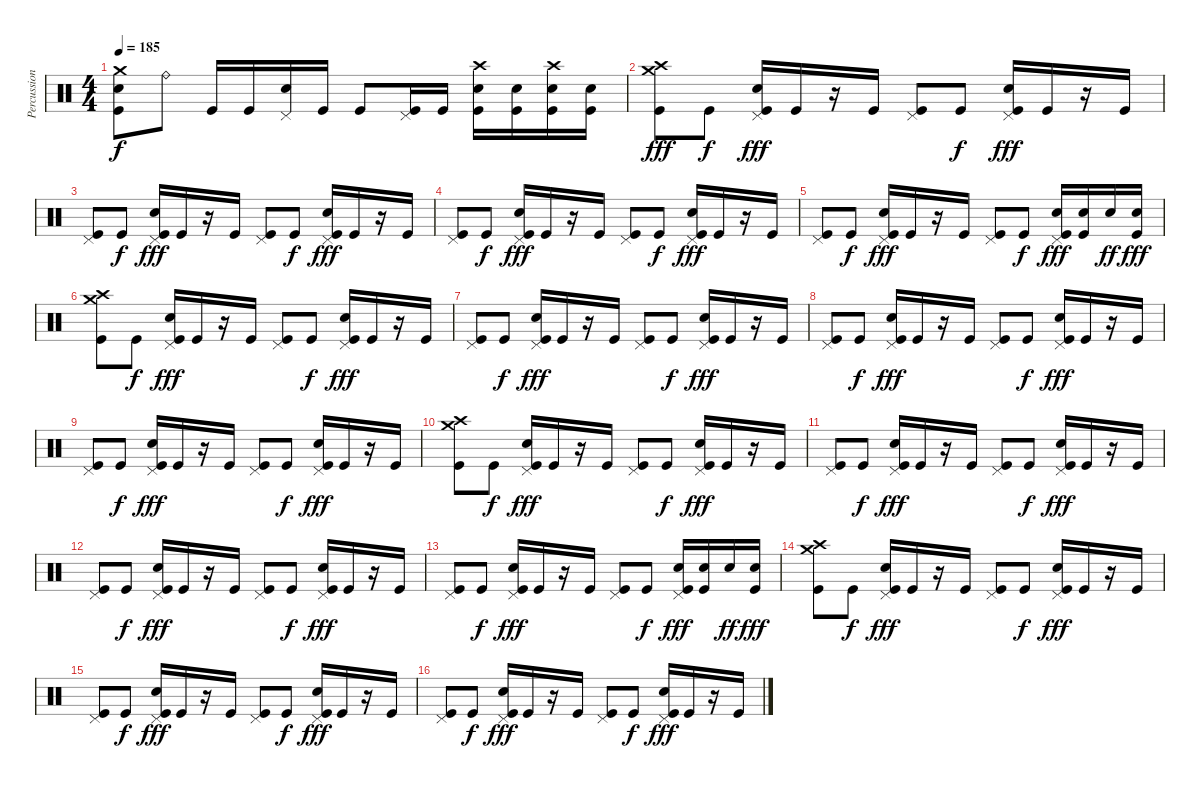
\track ("Percussions" "Percussion") {instrument percussion}
\staff {score}
\articulation defaults
\ts (4 4)
\tempo 185
\clef neutral
\ks c
("Crash medium (hit)" "Electric Snare (hit)" "Kick (hit)").8{dy f} "Ride (bell)".8 "Kick (hit)".16 "Kick (hit)".16 ("Pedal Hi-Hat (hit)" "Electric Snare (hit)").16 "Kick (hit)".16 "Kick (hit)".8 ("Pedal Hi-Hat (hit)" "Kick (hit)").16 "Kick (hit)".16 ("Crash high (hit)" "Electric Snare (hit)" "Kick (hit)").16 ("Electric Snare (hit)" "Kick (hit)").16 ("Crash high (hit)" "Electric Snare (hit)" "Kick (hit)").16 ("Electric Snare (hit)" "Kick (hit)").16 |
\section ("" "")
("Crash medium (hit)" "Crash high (hit)" "Kick (hit)").8{dy fff} "Kick (hit)".8{dy f} ("Pedal Hi-Hat (hit)" "Electric Snare (hit)" "Kick (hit)").16{dy fff} "Kick (hit)".16 r.16 "Kick (hit)".16 ("Pedal Hi-Hat (hit)" "Kick (hit)").8 "Kick (hit)".8{dy f} ("Pedal Hi-Hat (hit)" "Electric Snare (hit)" "Kick (hit)").16{dy fff} "Kick (hit)".16 r.16 "Kick (hit)".16 |
("Pedal Hi-Hat (hit)" "Kick (hit)").8 "Kick (hit)".8{dy f} ("Pedal Hi-Hat (hit)" "Electric Snare (hit)" "Kick (hit)").16{dy fff} "Kick (hit)".16 r.16 "Kick (hit)".16 ("Pedal Hi-Hat (hit)" "Kick (hit)").8 "Kick (hit)".8{dy f} ("Pedal Hi-Hat (hit)" "Electric Snare (hit)" "Kick (hit)").16{dy fff} "Kick (hit)".16 r.16 "Kick (hit)".16 |
("Pedal Hi-Hat (hit)" "Kick (hit)").8 "Kick (hit)".8{dy f} ("Pedal Hi-Hat (hit)" "Electric Snare (hit)" "Kick (hit)").16{dy fff} "Kick (hit)".16 r.16 "Kick (hit)".16 ("Pedal Hi-Hat (hit)" "Kick (hit)").8 "Kick (hit)".8{dy f} ("Pedal Hi-Hat (hit)" "Electric Snare (hit)" "Kick (hit)").16{dy fff} "Kick (hit)".16 r.16 "Kick (hit)".16 |
("Pedal Hi-Hat (hit)" "Kick (hit)").8 "Kick (hit)".8{dy f} ("Pedal Hi-Hat (hit)" "Electric Snare (hit)" "Kick (hit)").16{dy fff} "Kick (hit)".16 r.16 "Kick (hit)".16 ("Pedal Hi-Hat (hit)" "Kick (hit)").8 "Kick (hit)".8{dy f} ("Pedal Hi-Hat (hit)" "Electric Snare (hit)" "Kick (hit)").16{dy fff} ("Electric Snare (hit)" "Kick (hit)").16 "Electric Snare (hit)".16{dy ff} ("Electric Snare (hit)" "Kick (hit)").16{dy fff} |
("Crash medium (hit)" "Crash high (hit)" "Kick (hit)").8 "Kick (hit)".8{dy f} ("Pedal Hi-Hat (hit)" "Electric Snare (hit)" "Kick (hit)").16{dy fff} "Kick (hit)".16 r.16 "Kick (hit)".16 ("Pedal Hi-Hat (hit)" "Kick (hit)").8 "Kick (hit)".8{dy f} ("Pedal Hi-Hat (hit)" "Electric Snare (hit)" "Kick (hit)").16{dy fff} "Kick (hit)".16 r.16 "Kick (hit)".16 |
("Pedal Hi-Hat (hit)" "Kick (hit)").8 "Kick (hit)".8{dy f} ("Pedal Hi-Hat (hit)" "Electric Snare (hit)" "Kick (hit)").16{dy fff} "Kick (hit)".16 r.16 "Kick (hit)".16 ("Pedal Hi-Hat (hit)" "Kick (hit)").8 "Kick (hit)".8{dy f} ("Pedal Hi-Hat (hit)" "Electric Snare (hit)" "Kick (hit)").16{dy fff} "Kick (hit)".16 r.16 "Kick (hit)".16 |
("Pedal Hi-Hat (hit)" "Kick (hit)").8 "Kick (hit)".8{dy f} ("Pedal Hi-Hat (hit)" "Electric Snare (hit)" "Kick (hit)").16{dy fff} "Kick (hit)".16 r.16 "Kick (hit)".16 ("Pedal Hi-Hat (hit)" "Kick (hit)").8 "Kick (hit)".8{dy f} ("Pedal Hi-Hat (hit)" "Electric Snare (hit)" "Kick (hit)").16{dy fff} "Kick (hit)".16 r.16 "Kick (hit)".16 |
("Pedal Hi-Hat (hit)" "Kick (hit)").8 "Kick (hit)".8{dy f} ("Pedal Hi-Hat (hit)" "Electric Snare (hit)" "Kick (hit)").16{dy fff} "Kick (hit)".16 r.16 "Kick (hit)".16 ("Pedal Hi-Hat (hit)" "Kick (hit)").8 "Kick (hit)".8{dy f} ("Pedal Hi-Hat (hit)" "Electric Snare (hit)" "Kick (hit)").16{dy fff} "Kick (hit)".16 r.16 "Kick (hit)".16 |
\section ("" "")
("Crash medium (hit)" "Crash high (hit)" "Kick (hit)").8 "Kick (hit)".8{dy f} ("Pedal Hi-Hat (hit)" "Electric Snare (hit)" "Kick (hit)").16{dy fff} "Kick (hit)".16 r.16 "Kick (hit)".16 ("Pedal Hi-Hat (hit)" "Kick (hit)").8 "Kick (hit)".8{dy f} ("Pedal Hi-Hat (hit)" "Electric Snare (hit)" "Kick (hit)").16{dy fff} "Kick (hit)".16 r.16 "Kick (hit)".16 |
("Pedal Hi-Hat (hit)" "Kick (hit)").8 "Kick (hit)".8{dy f} ("Pedal Hi-Hat (hit)" "Electric Snare (hit)" "Kick (hit)").16{dy fff} "Kick (hit)".16 r.16 "Kick (hit)".16 ("Pedal Hi-Hat (hit)" "Kick (hit)").8 "Kick (hit)".8{dy f} ("Pedal Hi-Hat (hit)" "Electric Snare (hit)" "Kick (hit)").16{dy fff} "Kick (hit)".16 r.16 "Kick (hit)".16 |
("Pedal Hi-Hat (hit)" "Kick (hit)").8 "Kick (hit)".8{dy f} ("Pedal Hi-Hat (hit)" "Electric Snare (hit)" "Kick (hit)").16{dy fff} "Kick (hit)".16 r.16 "Kick (hit)".16 ("Pedal Hi-Hat (hit)" "Kick (hit)").8 "Kick (hit)".8{dy f} ("Pedal Hi-Hat (hit)" "Electric Snare (hit)" "Kick (hit)").16{dy fff} "Kick (hit)".16 r.16 "Kick (hit)".16 |
("Pedal Hi-Hat (hit)" "Kick (hit)").8 "Kick (hit)".8{dy f} ("Pedal Hi-Hat (hit)" "Electric Snare (hit)" "Kick (hit)").16{dy fff} "Kick (hit)".16 r.16 "Kick (hit)".16 ("Pedal Hi-Hat (hit)" "Kick (hit)").8 "Kick (hit)".8{dy f} ("Pedal Hi-Hat (hit)" "Electric Snare (hit)" "Kick (hit)").16{dy fff} ("Electric Snare (hit)" "Kick (hit)").16 "Electric Snare (hit)".16{dy ff} ("Electric Snare (hit)" "Kick (hit)").16{dy fff} |
("Crash medium (hit)" "Crash high (hit)" "Kick (hit)").8 "Kick (hit)".8{dy f} ("Pedal Hi-Hat (hit)" "Electric Snare (hit)" "Kick (hit)").16{dy fff} "Kick (hit)".16 r.16 "Kick (hit)".16 ("Pedal Hi-Hat (hit)" "Kick (hit)").8 "Kick (hit)".8{dy f} ("Pedal Hi-Hat (hit)" "Electric Snare (hit)" "Kick (hit)").16{dy fff} "Kick (hit)".16 r.16 "Kick (hit)".16 |
("Pedal Hi-Hat (hit)" "Kick (hit)").8 "Kick (hit)".8{dy f} ("Pedal Hi-Hat (hit)" "Electric Snare (hit)" "Kick (hit)").16{dy fff} "Kick (hit)".16 r.16 "Kick (hit)".16 ("Pedal Hi-Hat (hit)" "Kick (hit)").8 "Kick (hit)".8{dy f} ("Pedal Hi-Hat (hit)" "Electric Snare (hit)" "Kick (hit)").16{dy fff} "Kick (hit)".16 r.16 "Kick (hit)".16 |
("Pedal Hi-Hat (hit)" "Kick (hit)").8 "Kick (hit)".8{dy f} ("Pedal Hi-Hat (hit)" "Electric Snare (hit)" "Kick (hit)").16{dy fff} "Kick (hit)".16 r.16 "Kick (hit)".16 ("Pedal Hi-Hat (hit)" "Kick (hit)").8 "Kick (hit)".8{dy f} ("Pedal Hi-Hat (hit)" "Electric Snare (hit)" "Kick (hit)").16{dy fff} "Kick (hit)".16 r.16 "Kick (hit)".16
